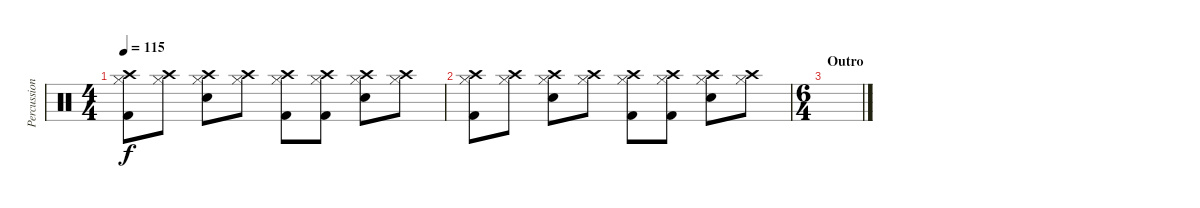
\track ("Percussions" "Percussion") {instrument percussion}
\staff {score}
\articulation defaults
\ts (4 4)
\tempo 115
\clef neutral
\ks c
("Crash high (hit)" "Hi-Hat (closed)" "Kick (hit) 2").8{dy f} ("Crash high (hit)" "Hi-Hat (closed)").8 ("Crash high (hit)" "Hi-Hat (closed)" "Electric Snare (hit)").8 ("Crash high (hit)" "Hi-Hat (closed)").8 ("Crash high (hit)" "Hi-Hat (closed)" "Kick (hit) 2").8 ("Crash high (hit)" "Hi-Hat (closed)" "Kick (hit) 2").8 ("Crash high (hit)" "Hi-Hat (closed)" "Electric Snare (hit)").8 ("Crash high (hit)" "Hi-Hat (closed)").8 |
("Crash high (hit)" "Hi-Hat (closed)" "Kick (hit) 2").8 ("Crash high (hit)" "Hi-Hat (closed)").8 ("Crash high (hit)" "Hi-Hat (closed)" "Electric Snare (hit)").8 ("Crash high (hit)" "Hi-Hat (closed)").8 ("Crash high (hit)" "Hi-Hat (closed)" "Kick (hit) 2").8 ("Crash high (hit)" "Hi-Hat (closed)" "Kick (hit) 2").8 ("Crash high (hit)" "Hi-Hat (closed)" "Electric Snare (hit)").8 ("Crash high (hit)" "Hi-Hat (closed)").8 |
\ts (6 4)
\section ("" "Outro")
